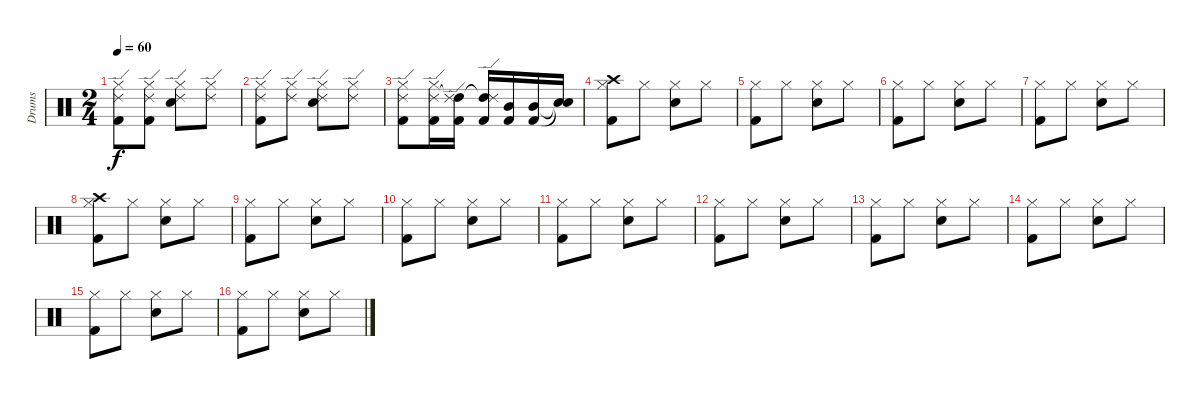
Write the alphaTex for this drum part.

\track ("Drums" "Drums") {instrument percussion}
\staff {score}
\articulation defaults
\ts (2 4)
\tempo 60
\clef neutral
\ks c
("Hi-Hat (closed)" "Kick (hit) 2" "Ride (edge) 2").8{dy f} ("Hi-Hat (closed)" "Kick (hit) 2" "Ride (edge) 2").8 ("Hi-Hat (closed)" "Snare (hit) 2" "Ride (edge) 2").8 ("Hi-Hat (closed)" "Ride (edge) 2").8 |
("Hi-Hat (closed)" "Kick (hit) 2" "Ride (edge) 2").8 ("Hi-Hat (closed)" "Ride (edge) 2").8 ("Hi-Hat (closed)" "Snare (hit) 2" "Ride (edge) 2").8 ("Hi-Hat (closed)" "Ride (edge) 2").8 |
("Hi-Hat (closed)" "Kick (hit) 2" "Ride (edge) 2").8 ("Hi-Hat (closed)" "Kick (hit) 2" "Ride (edge) 2").16 ("High Tom (hit)" "Kick (hit) 2" "Ride (edge) 2"{t}).16 ("High Tom (hit)" "Kick (hit) 2" "Ride (edge) 2"{t}).16 ("Mid Tom (hit)" "Kick (hit) 2").16 ("Mid Tom (hit)" "Kick (hit) 2").16 ("Snare (hit)"{t} "Snare (hit)"{t}).16 |
("Hi-Hat (closed)" "Crash high (hit)" "Kick (hit) 2").8 "Hi-Hat (closed)".8 ("Hi-Hat (closed)" "Snare (hit) 2").8 "Hi-Hat (closed)".8 |
("Hi-Hat (closed)" "Kick (hit) 2").8 "Hi-Hat (closed)".8 ("Hi-Hat (closed)" "Snare (hit) 2").8 "Hi-Hat (closed)".8 |
("Hi-Hat (closed)" "Kick (hit) 2").8 "Hi-Hat (closed)".8 ("Hi-Hat (closed)" "Snare (hit) 2").8 "Hi-Hat (closed)".8 |
("Hi-Hat (closed)" "Kick (hit) 2").8 "Hi-Hat (closed)".8 ("Hi-Hat (closed)" "Snare (hit) 2").8 "Hi-Hat (closed)".8 |
("Hi-Hat (closed)" "Crash high (hit)" "Kick (hit) 2").8 "Hi-Hat (closed)".8 ("Hi-Hat (closed)" "Snare (hit) 2").8 "Hi-Hat (closed)".8 |
("Hi-Hat (closed)" "Kick (hit) 2").8 "Hi-Hat (closed)".8 ("Hi-Hat (closed)" "Snare (hit) 2").8 "Hi-Hat (closed)".8 |
("Hi-Hat (closed)" "Kick (hit) 2").8 "Hi-Hat (closed)".8 ("Hi-Hat (closed)" "Snare (hit) 2").8 "Hi-Hat (closed)".8 |
("Hi-Hat (closed)" "Kick (hit) 2").8 "Hi-Hat (closed)".8 ("Hi-Hat (closed)" "Snare (hit) 2").8 "Hi-Hat (closed)".8 |
("Hi-Hat (closed)" "Kick (hit) 2").8 "Hi-Hat (closed)".8 ("Hi-Hat (closed)" "Snare (hit) 2").8 "Hi-Hat (closed)".8 |
("Hi-Hat (closed)" "Kick (hit) 2").8 "Hi-Hat (closed)".8 ("Hi-Hat (closed)" "Snare (hit) 2").8 "Hi-Hat (closed)".8 |
("Hi-Hat (closed)" "Kick (hit) 2").8 "Hi-Hat (closed)".8 ("Hi-Hat (closed)" "Snare (hit) 2").8 "Hi-Hat (closed)".8 |
("Hi-Hat (closed)" "Kick (hit) 2").8 "Hi-Hat (closed)".8 ("Hi-Hat (closed)" "Snare (hit) 2").8 "Hi-Hat (closed)".8 |
("Hi-Hat (closed)" "Kick (hit) 2").8 "Hi-Hat (closed)".8 ("Hi-Hat (closed)" "Snare (hit) 2").8 "Hi-Hat (closed)".8
